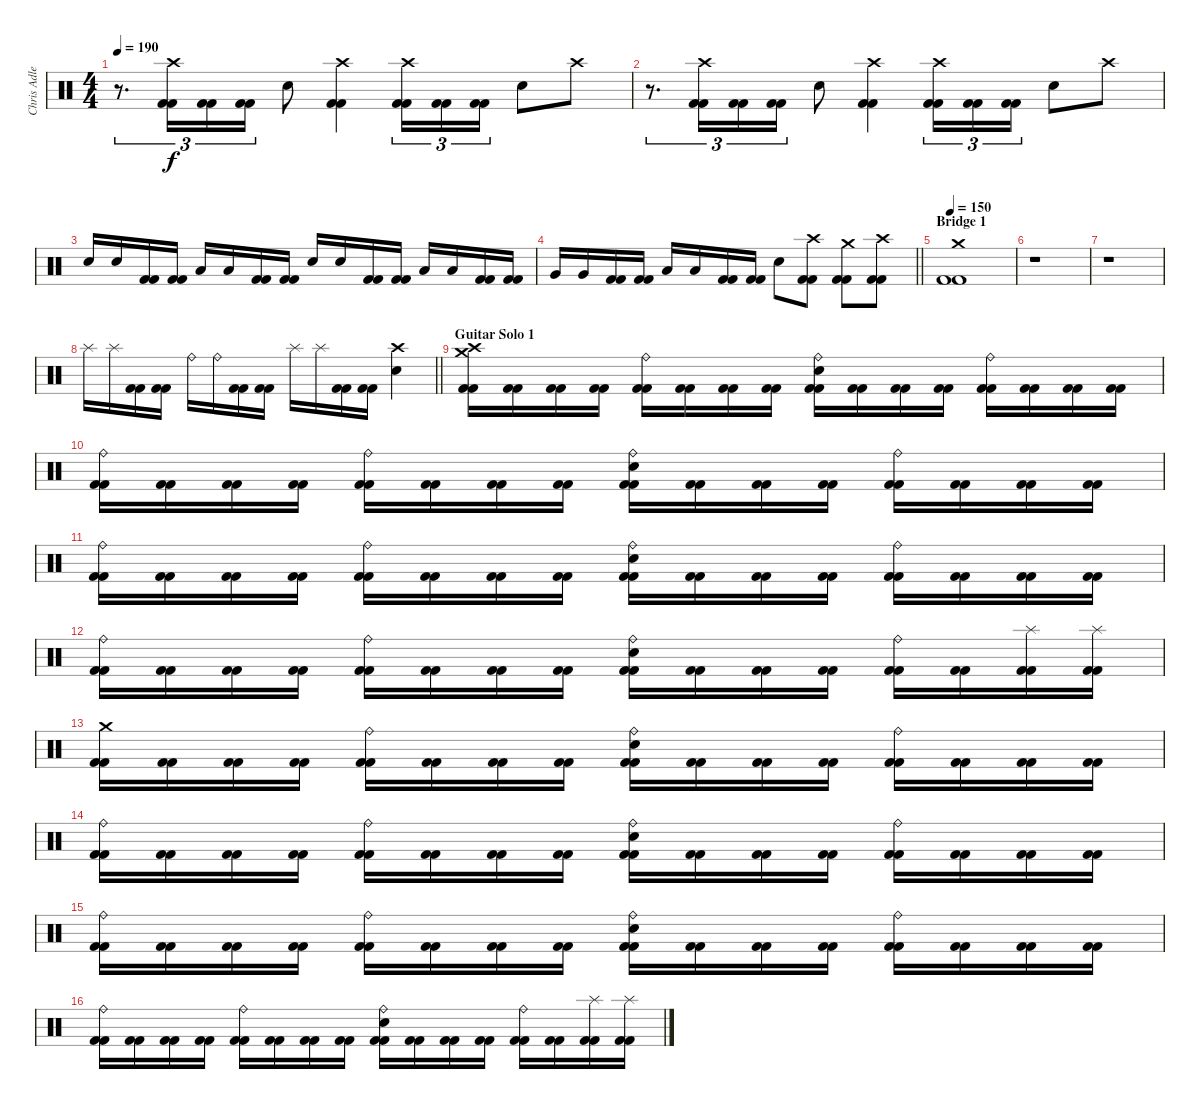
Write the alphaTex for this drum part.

\track ("Chris Adler" "Chris Adle") {instrument percussion}
\staff {score}
\articulation defaults
\ts (4 4)
\tempo 190
\clef neutral
\ks c
r.8{d tu (3 2) dy f} ("Crash high (hit)" "Kick (hit) 2" "Kick (hit) 2").16{tu (3 2)} ("Kick (hit) 2" "Kick (hit) 2").16{tu (3 2)} ("Kick (hit) 2" "Kick (hit) 2").16{tu (3 2)} "Electric Snare (hit)".8 ("Crash high (hit)" "Kick (hit) 2" "Kick (hit) 2").4 ("Crash high (hit)" "Kick (hit) 2" "Kick (hit) 2").16{tu (3 2)} ("Kick (hit) 2" "Kick (hit) 2").16{tu (3 2)} ("Kick (hit) 2" "Kick (hit) 2").16{tu (3 2)} "Electric Snare (hit)".8 "Crash high (hit)".8 |
r.8{d tu (3 2)} ("Crash high (hit)" "Kick (hit) 2" "Kick (hit) 2").16{tu (3 2)} ("Kick (hit) 2" "Kick (hit) 2").16{tu (3 2)} ("Kick (hit) 2" "Kick (hit) 2").16{tu (3 2)} "Electric Snare (hit)".8 ("Crash high (hit)" "Kick (hit) 2" "Kick (hit) 2").4 ("Crash high (hit)" "Kick (hit) 2" "Kick (hit) 2").16{tu (3 2)} ("Kick (hit) 2" "Kick (hit) 2").16{tu (3 2)} ("Kick (hit) 2" "Kick (hit) 2").16{tu (3 2)} "Electric Snare (hit)".8 "Crash high (hit)".8 |
"Electric Snare (hit)".16 "Electric Snare (hit)".16 ("Kick (hit) 2" "Kick (hit) 2").16 ("Kick (hit) 2" "Kick (hit) 2").16 "Low Tom (hit)".16 "Low Tom (hit)".16 ("Kick (hit) 2" "Kick (hit) 2").16 ("Kick (hit) 2" "Kick (hit) 2").16 "Electric Snare (hit)".16 "Electric Snare (hit)".16 ("Kick (hit) 2" "Kick (hit) 2").16 ("Kick (hit) 2" "Kick (hit) 2").16 "Low Tom (hit)".16 "Low Tom (hit)".16 ("Kick (hit) 2" "Kick (hit) 2").16 ("Kick (hit) 2" "Kick (hit) 2").16 |
\barLineRight lightlight "Very Low Tom (hit)".16 "Very Low Tom (hit)".16
("Kick (hit) 2" "Kick (hit) 2").16 ("Kick (hit) 2" "Kick (hit) 2").16 "Low Floor Tom (hit)".16 "Low Floor Tom (hit)".16 ("Kick (hit) 2" "Kick (hit) 2").16 ("Kick (hit) 2" "Kick (hit) 2").16 "Electric Snare (hit)".8 ("Crash high (hit)" "Kick (hit) 2" "Kick (hit) 2").8 ("Crash medium (hit)" "Kick (hit) 2" "Kick (hit) 2").8 ("Crash high (hit)" "Kick (hit) 2" "Kick (hit) 2").8 |
\section ("" "Bridge 1")
\tempo 150
("Crash medium (hit)" "Kick (hit) 2" "Kick (hit) 2").1 |
r.1 |
r.1 |
\barLineRight lightlight "Splash (hit)".16 "Splash (hit)".16
("Kick (hit) 2" "Kick (hit) 2").16 ("Kick (hit) 2" "Kick (hit) 2").16 "Ride (bell)".16 "Ride (bell)".16 ("Kick (hit) 2" "Kick (hit) 2").16 ("Kick (hit) 2" "Kick (hit) 2").16 "Splash (hit)".16 "Splash (hit)".16 ("Kick (hit) 2" "Kick (hit) 2").16 ("Kick (hit) 2" "Kick (hit) 2").16 ("Crash high (hit)" "Electric Snare (hit)").4 |
\section ("" "Guitar Solo 1")
("Crash medium (hit)" "Crash high (hit)" "Kick (hit) 2" "Kick (hit) 2").16 ("Kick (hit) 2" "Kick (hit) 2").16 ("Kick (hit) 2" "Kick (hit) 2").16 ("Kick (hit) 2" "Kick (hit) 2").16 ("Ride (bell)" "Kick (hit) 2" "Kick (hit) 2").16 ("Kick (hit) 2" "Kick (hit) 2").16 ("Kick (hit) 2" "Kick (hit) 2").16 ("Kick (hit) 2" "Kick (hit) 2").16 ("Ride (bell)" "Electric Snare (hit)" "Kick (hit) 2" "Kick (hit) 2").16 ("Kick (hit) 2" "Kick (hit) 2").16 ("Kick (hit) 2" "Kick (hit) 2").16 ("Kick (hit) 2" "Kick (hit) 2").16 ("Ride (bell)" "Kick (hit) 2" "Kick (hit) 2").16 ("Kick (hit) 2" "Kick (hit) 2").16 ("Kick (hit) 2" "Kick (hit) 2").16 ("Kick (hit) 2" "Kick (hit) 2").16 |
("Ride (bell)" "Kick (hit) 2" "Kick (hit) 2").16 ("Kick (hit) 2" "Kick (hit) 2").16 ("Kick (hit) 2" "Kick (hit) 2").16 ("Kick (hit) 2" "Kick (hit) 2").16 ("Ride (bell)" "Kick (hit) 2" "Kick (hit) 2").16 ("Kick (hit) 2" "Kick (hit) 2").16 ("Kick (hit) 2" "Kick (hit) 2").16 ("Kick (hit) 2" "Kick (hit) 2").16 ("Ride (bell)" "Electric Snare (hit)" "Kick (hit) 2" "Kick (hit) 2").16 ("Kick (hit) 2" "Kick (hit) 2").16 ("Kick (hit) 2" "Kick (hit) 2").16 ("Kick (hit) 2" "Kick (hit) 2").16 ("Ride (bell)" "Kick (hit) 2" "Kick (hit) 2").16 ("Kick (hit) 2" "Kick (hit) 2").16 ("Kick (hit) 2" "Kick (hit) 2").16 ("Kick (hit) 2" "Kick (hit) 2").16 |
("Ride (bell)" "Kick (hit) 2" "Kick (hit) 2").16 ("Kick (hit) 2" "Kick (hit) 2").16 ("Kick (hit) 2" "Kick (hit) 2").16 ("Kick (hit) 2" "Kick (hit) 2").16 ("Ride (bell)" "Kick (hit) 2" "Kick (hit) 2").16 ("Kick (hit) 2" "Kick (hit) 2").16 ("Kick (hit) 2" "Kick (hit) 2").16 ("Kick (hit) 2" "Kick (hit) 2").16 ("Ride (bell)" "Electric Snare (hit)" "Kick (hit) 2" "Kick (hit) 2").16 ("Kick (hit) 2" "Kick (hit) 2").16 ("Kick (hit) 2" "Kick (hit) 2").16 ("Kick (hit) 2" "Kick (hit) 2").16 ("Ride (bell)" "Kick (hit) 2" "Kick (hit) 2").16 ("Kick (hit) 2" "Kick (hit) 2").16 ("Kick (hit) 2" "Kick (hit) 2").16 ("Kick (hit) 2" "Kick (hit) 2").16 |
("Ride (bell)" "Kick (hit) 2" "Kick (hit) 2").16 ("Kick (hit) 2" "Kick (hit) 2").16 ("Kick (hit) 2" "Kick (hit) 2").16 ("Kick (hit) 2" "Kick (hit) 2").16 ("Ride (bell)" "Kick (hit) 2" "Kick (hit) 2").16 ("Kick (hit) 2" "Kick (hit) 2").16 ("Kick (hit) 2" "Kick (hit) 2").16 ("Kick (hit) 2" "Kick (hit) 2").16 ("Ride (bell)" "Electric Snare (hit)" "Kick (hit) 2" "Kick (hit) 2").16 ("Kick (hit) 2" "Kick (hit) 2").16 ("Kick (hit) 2" "Kick (hit) 2").16 ("Kick (hit) 2" "Kick (hit) 2").16 ("Ride (bell)" "Kick (hit) 2" "Kick (hit) 2").16 ("Kick (hit) 2" "Kick (hit) 2").16 ("Splash (hit)" "Kick (hit) 2" "Kick (hit) 2").16 ("Splash (hit)" "Kick (hit) 2" "Kick (hit) 2").16 |
("Crash medium (hit)" "Kick (hit) 2" "Kick (hit) 2").16 ("Kick (hit) 2" "Kick (hit) 2").16 ("Kick (hit) 2" "Kick (hit) 2").16 ("Kick (hit) 2" "Kick (hit) 2").16 ("Ride (bell)" "Kick (hit) 2" "Kick (hit) 2").16 ("Kick (hit) 2" "Kick (hit) 2").16 ("Kick (hit) 2" "Kick (hit) 2").16 ("Kick (hit) 2" "Kick (hit) 2").16 ("Ride (bell)" "Electric Snare (hit)" "Kick (hit) 2" "Kick (hit) 2").16 ("Kick (hit) 2" "Kick (hit) 2").16 ("Kick (hit) 2" "Kick (hit) 2").16 ("Kick (hit) 2" "Kick (hit) 2").16 ("Ride (bell)" "Kick (hit) 2" "Kick (hit) 2").16 ("Kick (hit) 2" "Kick (hit) 2").16 ("Kick (hit) 2" "Kick (hit) 2").16 ("Kick (hit) 2" "Kick (hit) 2").16 |
("Ride (bell)" "Kick (hit) 2" "Kick (hit) 2").16 ("Kick (hit) 2" "Kick (hit) 2").16 ("Kick (hit) 2" "Kick (hit) 2").16 ("Kick (hit) 2" "Kick (hit) 2").16 ("Ride (bell)" "Kick (hit) 2" "Kick (hit) 2").16 ("Kick (hit) 2" "Kick (hit) 2").16 ("Kick (hit) 2" "Kick (hit) 2").16 ("Kick (hit) 2" "Kick (hit) 2").16 ("Ride (bell)" "Electric Snare (hit)" "Kick (hit) 2" "Kick (hit) 2").16 ("Kick (hit) 2" "Kick (hit) 2").16 ("Kick (hit) 2" "Kick (hit) 2").16 ("Kick (hit) 2" "Kick (hit) 2").16 ("Ride (bell)" "Kick (hit) 2" "Kick (hit) 2").16 ("Kick (hit) 2" "Kick (hit) 2").16 ("Kick (hit) 2" "Kick (hit) 2").16 ("Kick (hit) 2" "Kick (hit) 2").16 |
("Ride (bell)" "Kick (hit) 2" "Kick (hit) 2").16 ("Kick (hit) 2" "Kick (hit) 2").16 ("Kick (hit) 2" "Kick (hit) 2").16 ("Kick (hit) 2" "Kick (hit) 2").16 ("Ride (bell)" "Kick (hit) 2" "Kick (hit) 2").16 ("Kick (hit) 2" "Kick (hit) 2").16 ("Kick (hit) 2" "Kick (hit) 2").16 ("Kick (hit) 2" "Kick (hit) 2").16 ("Ride (bell)" "Electric Snare (hit)" "Kick (hit) 2" "Kick (hit) 2").16 ("Kick (hit) 2" "Kick (hit) 2").16 ("Kick (hit) 2" "Kick (hit) 2").16 ("Kick (hit) 2" "Kick (hit) 2").16 ("Ride (bell)" "Kick (hit) 2" "Kick (hit) 2").16 ("Kick (hit) 2" "Kick (hit) 2").16 ("Kick (hit) 2" "Kick (hit) 2").16 ("Kick (hit) 2" "Kick (hit) 2").16 |
("Ride (bell)" "Kick (hit) 2" "Kick (hit) 2").16 ("Kick (hit) 2" "Kick (hit) 2").16 ("Kick (hit) 2" "Kick (hit) 2").16 ("Kick (hit) 2" "Kick (hit) 2").16 ("Ride (bell)" "Kick (hit) 2" "Kick (hit) 2").16 ("Kick (hit) 2" "Kick (hit) 2").16 ("Kick (hit) 2" "Kick (hit) 2").16 ("Kick (hit) 2" "Kick (hit) 2").16 ("Ride (bell)" "Electric Snare (hit)" "Kick (hit) 2" "Kick (hit) 2").16 ("Kick (hit) 2" "Kick (hit) 2").16 ("Kick (hit) 2" "Kick (hit) 2").16 ("Kick (hit) 2" "Kick (hit) 2").16 ("Ride (bell)" "Kick (hit) 2" "Kick (hit) 2").16 ("Kick (hit) 2" "Kick (hit) 2").16 ("Splash (hit)" "Kick (hit) 2" "Kick (hit) 2").16 ("Splash (hit)" "Kick (hit) 2" "Kick (hit) 2").16
